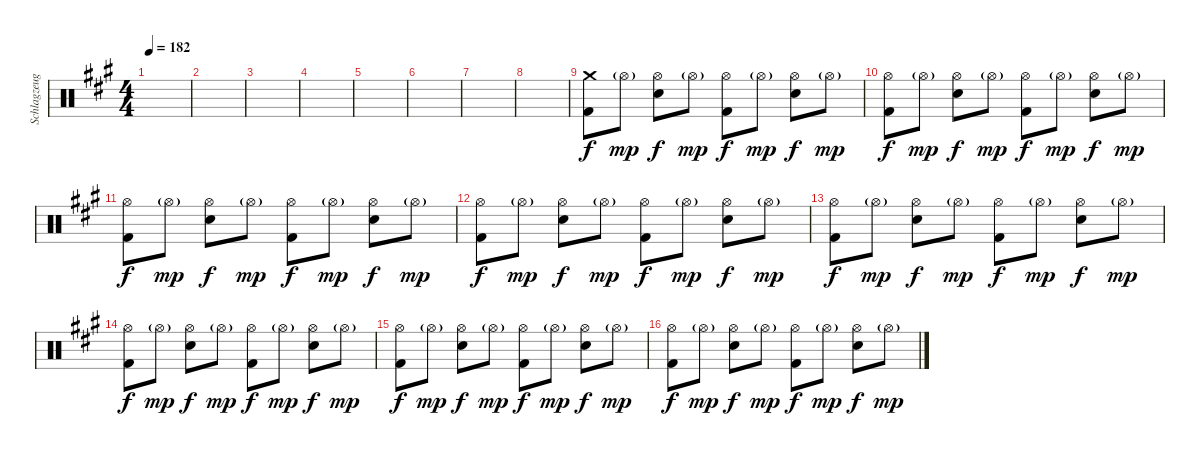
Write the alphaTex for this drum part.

\track ("Schlagzeug" "Schlagzeug") {instrument percussion}
\staff {score}
\articulation defaults
\ts (4 4)
\tempo 182
\clef neutral
\ks a
|
|
|
|
|
|
|
|
("Crash medium (hit)" "Kick (hit) 2").8 "Hi-Hat (open)"{g}.8{dy mp} ("Hi-Hat (open)" "Snare (hit) 2").8{dy f} "Hi-Hat (open)"{g}.8{dy mp} ("Hi-Hat (open)" "Kick (hit) 2").8{dy f} "Hi-Hat (open)"{g}.8{dy mp} ("Hi-Hat (open)" "Snare (hit) 2").8{dy f} "Hi-Hat (open)"{g}.8{dy mp} |
("Hi-Hat (open)" "Kick (hit) 2").8{dy f} "Hi-Hat (open)"{g}.8{dy mp} ("Hi-Hat (open)" "Snare (hit) 2").8{dy f} "Hi-Hat (open)"{g}.8{dy mp} ("Hi-Hat (open)" "Kick (hit) 2").8{dy f} "Hi-Hat (open)"{g}.8{dy mp} ("Hi-Hat (open)" "Snare (hit) 2").8{dy f} "Hi-Hat (open)"{g}.8{dy mp} |
("Hi-Hat (open)" "Kick (hit) 2").8{dy f} "Hi-Hat (open)"{g}.8{dy mp} ("Hi-Hat (open)" "Snare (hit) 2").8{dy f} "Hi-Hat (open)"{g}.8{dy mp} ("Hi-Hat (open)" "Kick (hit) 2").8{dy f} "Hi-Hat (open)"{g}.8{dy mp} ("Hi-Hat (open)" "Snare (hit) 2").8{dy f} "Hi-Hat (open)"{g}.8{dy mp} |
("Hi-Hat (open)" "Kick (hit) 2").8{dy f} "Hi-Hat (open)"{g}.8{dy mp} ("Hi-Hat (open)" "Snare (hit) 2").8{dy f} "Hi-Hat (open)"{g}.8{dy mp} ("Hi-Hat (open)" "Kick (hit) 2").8{dy f} "Hi-Hat (open)"{g}.8{dy mp} ("Hi-Hat (open)" "Snare (hit) 2").8{dy f} "Hi-Hat (open)"{g}.8{dy mp} |
("Hi-Hat (open)" "Kick (hit) 2").8{dy f} "Hi-Hat (open)"{g}.8{dy mp} ("Hi-Hat (open)" "Snare (hit) 2").8{dy f} "Hi-Hat (open)"{g}.8{dy mp} ("Hi-Hat (open)" "Kick (hit) 2").8{dy f} "Hi-Hat (open)"{g}.8{dy mp} ("Hi-Hat (open)" "Snare (hit) 2").8{dy f} "Hi-Hat (open)"{g}.8{dy mp} |
("Hi-Hat (open)" "Kick (hit) 2").8{dy f} "Hi-Hat (open)"{g}.8{dy mp} ("Hi-Hat (open)" "Snare (hit) 2").8{dy f} "Hi-Hat (open)"{g}.8{dy mp} ("Hi-Hat (open)" "Kick (hit) 2").8{dy f} "Hi-Hat (open)"{g}.8{dy mp} ("Hi-Hat (open)" "Snare (hit) 2").8{dy f} "Hi-Hat (open)"{g}.8{dy mp} |
("Hi-Hat (open)" "Kick (hit) 2").8{dy f} "Hi-Hat (open)"{g}.8{dy mp} ("Hi-Hat (open)" "Snare (hit) 2").8{dy f} "Hi-Hat (open)"{g}.8{dy mp} ("Hi-Hat (open)" "Kick (hit) 2").8{dy f} "Hi-Hat (open)"{g}.8{dy mp} ("Hi-Hat (open)" "Snare (hit) 2").8{dy f} "Hi-Hat (open)"{g}.8{dy mp} |
("Hi-Hat (open)" "Kick (hit) 2").8{dy f} "Hi-Hat (open)"{g}.8{dy mp} ("Hi-Hat (open)" "Snare (hit) 2").8{dy f} "Hi-Hat (open)"{g}.8{dy mp} ("Hi-Hat (open)" "Kick (hit) 2").8{dy f} "Hi-Hat (open)"{g}.8{dy mp} ("Hi-Hat (open)" "Snare (hit) 2").8{dy f} "Hi-Hat (open)"{g}.8{dy mp}
